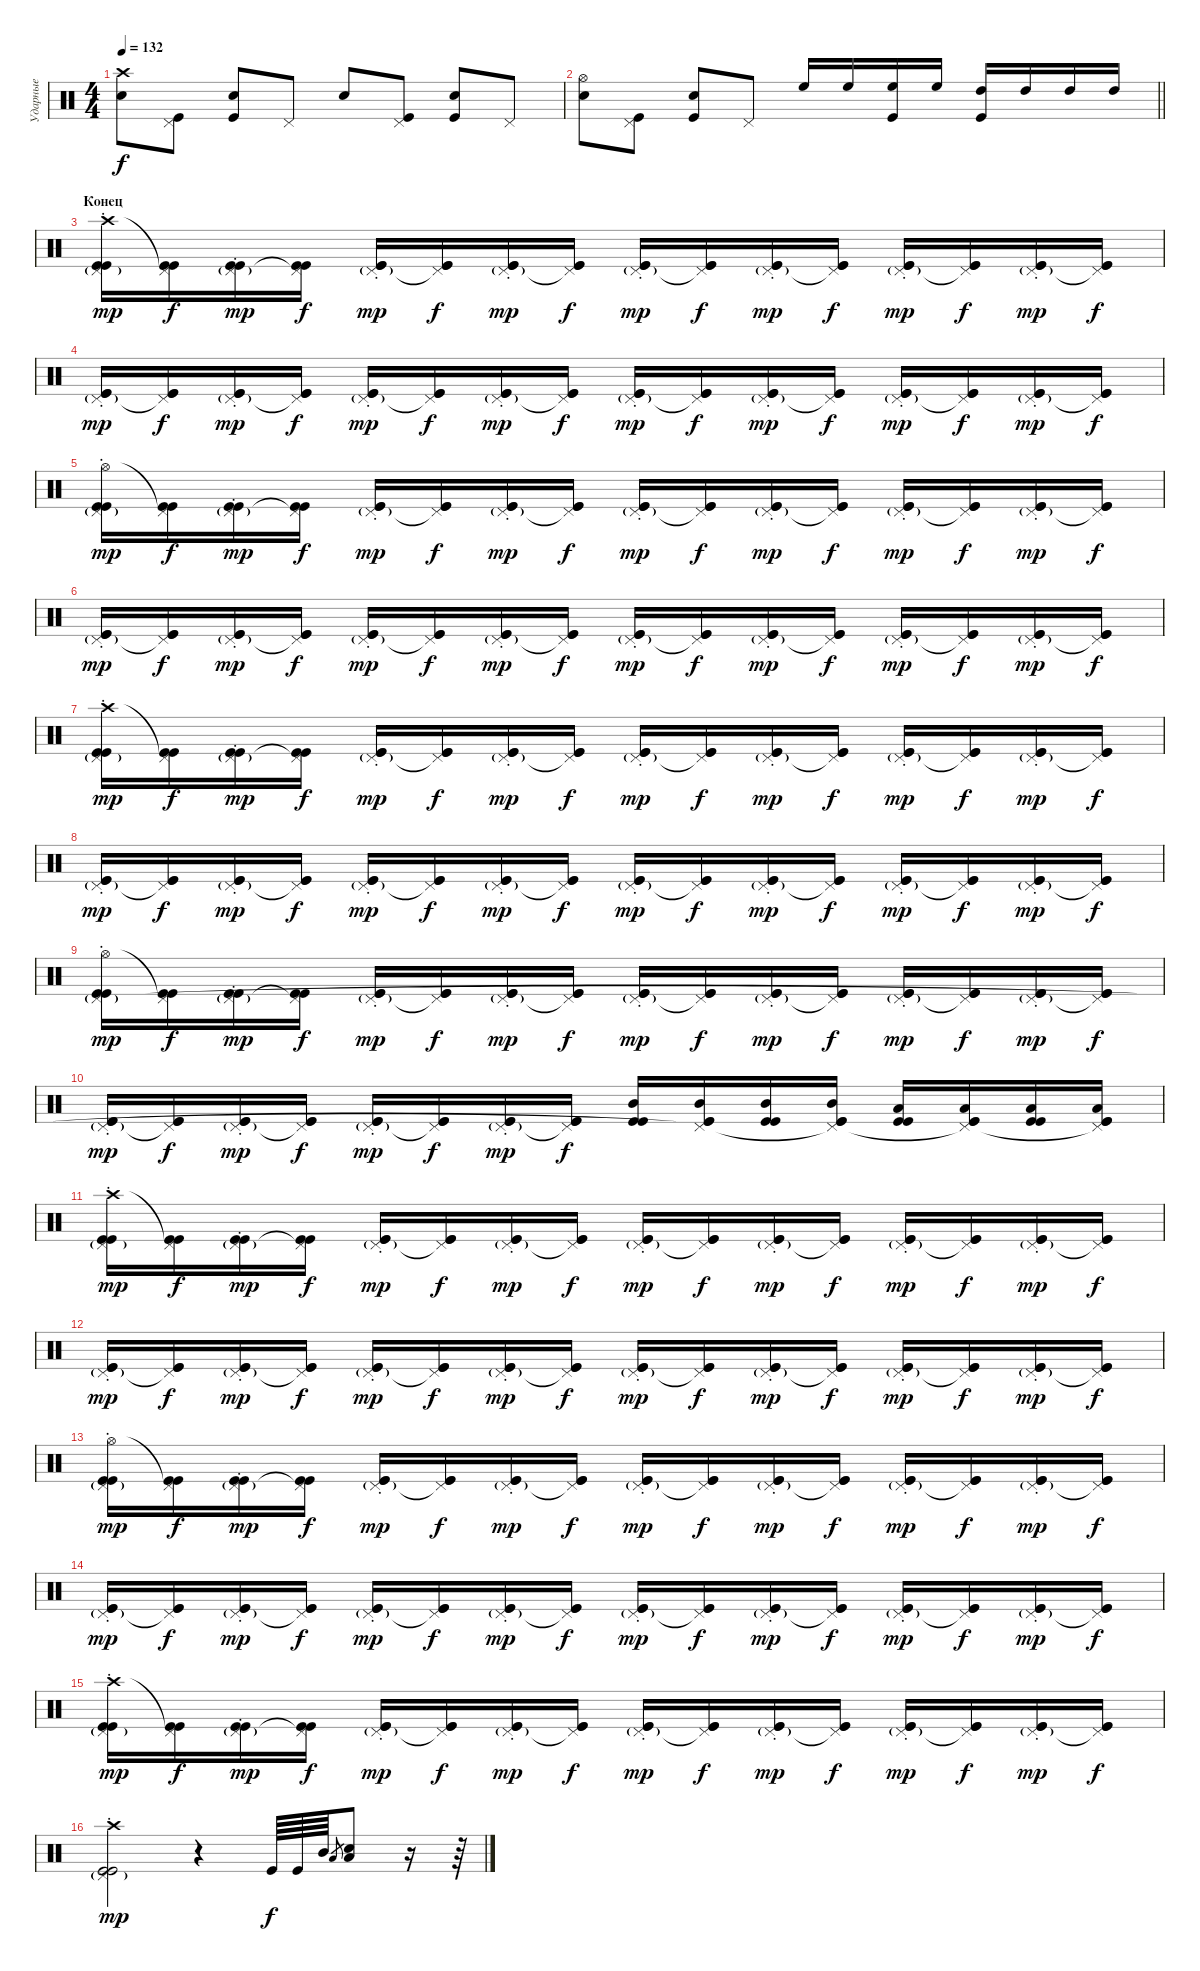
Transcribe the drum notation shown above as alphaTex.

\track ("Ударные" "Ударные") {instrument percussion}
\staff {score}
\articulation defaults
\ts (4 4)
\tempo 132
\clef neutral
\ks c
("Crash high (hit)" "Snare (hit) 2").8{dy f} ("Pedal Hi-Hat (hit)" "Kick (hit)").8 ("Snare (hit) 2" "Kick (hit)").8 "Pedal Hi-Hat (hit)".8 "Snare (hit) 2".8 ("Pedal Hi-Hat (hit)" "Kick (hit)").8 ("Snare (hit) 2" "Kick (hit)").8 "Pedal Hi-Hat (hit)".8 |
\barLineRight lightlight
("Hi-Hat (open)" "Snare (hit) 2").8 ("Pedal Hi-Hat (hit)" "Kick (hit)").8 ("Snare (hit) 2" "Kick (hit)").8 "Pedal Hi-Hat (hit)".8 "High Floor Tom (hit)".16 "High Floor Tom (hit)".16 ("High Floor Tom (hit)" "Kick (hit)").16 "High Floor Tom (hit)".16 ("High Tom (hit)" "Kick (hit)").16 "High Tom (hit)".16 "High Tom (hit)".16 "High Tom (hit)".16 |
\section ("" "Конец")
("Kick (hit)" "Kick (hit)" "Crash high (hit)" "Pedal Hi-Hat (hit)"{g st}).16{dy mp} ("Kick (hit)" "Kick (hit)" "Pedal Hi-Hat (hit)"{t}).16{dy f} ("Kick (hit)" "Kick (hit)" "Pedal Hi-Hat (hit)"{g st}).16{dy mp} ("Kick (hit)" "Kick (hit)" "Pedal Hi-Hat (hit)"{t}).16{dy f} ("Kick (hit)" "Kick (hit)" "Pedal Hi-Hat (hit)"{g st}).16{dy mp} ("Kick (hit)" "Kick (hit)" "Pedal Hi-Hat (hit)"{t}).16{dy f} ("Kick (hit)" "Kick (hit)" "Pedal Hi-Hat (hit)"{g st}).16{dy mp} ("Kick (hit)" "Kick (hit)" "Pedal Hi-Hat (hit)"{t}).16{dy f} ("Kick (hit)" "Kick (hit)" "Pedal Hi-Hat (hit)"{g st}).16{dy mp} ("Kick (hit)" "Kick (hit)" "Pedal Hi-Hat (hit)"{t}).16{dy f} ("Kick (hit)" "Kick (hit)" "Pedal Hi-Hat (hit)"{g st}).16{dy mp} ("Kick (hit)" "Kick (hit)" "Pedal Hi-Hat (hit)"{t}).16{dy f} ("Kick (hit)" "Kick (hit)" "Pedal Hi-Hat (hit)"{g st}).16{dy mp} ("Kick (hit)" "Kick (hit)" "Pedal Hi-Hat (hit)"{t}).16{dy f} ("Kick (hit)" "Kick (hit)" "Pedal Hi-Hat (hit)"{g st}).16{dy mp} ("Kick (hit)" "Kick (hit)" "Pedal Hi-Hat (hit)"{t}).16{dy f} |
("Kick (hit)" "Kick (hit)" "Pedal Hi-Hat (hit)"{g st}).16{dy mp} ("Kick (hit)" "Kick (hit)" "Pedal Hi-Hat (hit)"{t}).16{dy f} ("Kick (hit)" "Kick (hit)" "Pedal Hi-Hat (hit)"{g st}).16{dy mp} ("Kick (hit)" "Kick (hit)" "Pedal Hi-Hat (hit)"{t}).16{dy f} ("Kick (hit)" "Kick (hit)" "Pedal Hi-Hat (hit)"{g st}).16{dy mp} ("Kick (hit)" "Kick (hit)" "Pedal Hi-Hat (hit)"{t}).16{dy f} ("Kick (hit)" "Kick (hit)" "Pedal Hi-Hat (hit)"{g st}).16{dy mp} ("Kick (hit)" "Kick (hit)" "Pedal Hi-Hat (hit)"{t}).16{dy f} ("Kick (hit)" "Kick (hit)" "Pedal Hi-Hat (hit)"{g st}).16{dy mp} ("Kick (hit)" "Kick (hit)" "Pedal Hi-Hat (hit)"{t}).16{dy f} ("Kick (hit)" "Kick (hit)" "Pedal Hi-Hat (hit)"{g st}).16{dy mp} ("Kick (hit)" "Kick (hit)" "Pedal Hi-Hat (hit)"{t}).16{dy f} ("Kick (hit)" "Kick (hit)" "Pedal Hi-Hat (hit)"{g st}).16{dy mp} ("Kick (hit)" "Kick (hit)" "Pedal Hi-Hat (hit)"{t}).16{dy f} ("Kick (hit)" "Kick (hit)" "Pedal Hi-Hat (hit)"{g st}).16{dy mp} ("Kick (hit)" "Kick (hit)" "Pedal Hi-Hat (hit)"{t}).16{dy f} |
("Kick (hit)" "Kick (hit)" "Hi-Hat (open)" "Pedal Hi-Hat (hit)"{g st}).16{dy mp} ("Kick (hit)" "Kick (hit)" "Pedal Hi-Hat (hit)"{t}).16{dy f} ("Kick (hit)" "Kick (hit)" "Pedal Hi-Hat (hit)"{g st}).16{dy mp} ("Kick (hit)" "Kick (hit)" "Pedal Hi-Hat (hit)"{t}).16{dy f} ("Kick (hit)" "Kick (hit)" "Pedal Hi-Hat (hit)"{g st}).16{dy mp} ("Kick (hit)" "Kick (hit)" "Pedal Hi-Hat (hit)"{t}).16{dy f} ("Kick (hit)" "Kick (hit)" "Pedal Hi-Hat (hit)"{g st}).16{dy mp} ("Kick (hit)" "Kick (hit)" "Pedal Hi-Hat (hit)"{t}).16{dy f} ("Kick (hit)" "Kick (hit)" "Pedal Hi-Hat (hit)"{g st}).16{dy mp} ("Kick (hit)" "Kick (hit)" "Pedal Hi-Hat (hit)"{t}).16{dy f} ("Kick (hit)" "Kick (hit)" "Pedal Hi-Hat (hit)"{g st}).16{dy mp} ("Kick (hit)" "Kick (hit)" "Pedal Hi-Hat (hit)"{t}).16{dy f} ("Kick (hit)" "Kick (hit)" "Pedal Hi-Hat (hit)"{g st}).16{dy mp} ("Kick (hit)" "Kick (hit)" "Pedal Hi-Hat (hit)"{t}).16{dy f} ("Kick (hit)" "Kick (hit)" "Pedal Hi-Hat (hit)"{g st}).16{dy mp} ("Kick (hit)" "Kick (hit)" "Pedal Hi-Hat (hit)"{t}).16{dy f} |
("Kick (hit)" "Kick (hit)" "Pedal Hi-Hat (hit)"{g st}).16{dy mp} ("Kick (hit)" "Kick (hit)" "Pedal Hi-Hat (hit)"{t}).16{dy f} ("Kick (hit)" "Kick (hit)" "Pedal Hi-Hat (hit)"{g st}).16{dy mp} ("Kick (hit)" "Kick (hit)" "Pedal Hi-Hat (hit)"{t}).16{dy f} ("Kick (hit)" "Kick (hit)" "Pedal Hi-Hat (hit)"{g st}).16{dy mp} ("Kick (hit)" "Kick (hit)" "Pedal Hi-Hat (hit)"{t}).16{dy f} ("Kick (hit)" "Kick (hit)" "Pedal Hi-Hat (hit)"{g st}).16{dy mp} ("Kick (hit)" "Kick (hit)" "Pedal Hi-Hat (hit)"{t}).16{dy f} ("Kick (hit)" "Kick (hit)" "Pedal Hi-Hat (hit)"{g st}).16{dy mp} ("Kick (hit)" "Kick (hit)" "Pedal Hi-Hat (hit)"{t}).16{dy f} ("Kick (hit)" "Kick (hit)" "Pedal Hi-Hat (hit)"{g st}).16{dy mp} ("Kick (hit)" "Kick (hit)" "Pedal Hi-Hat (hit)"{t}).16{dy f} ("Kick (hit)" "Kick (hit)" "Pedal Hi-Hat (hit)"{g st}).16{dy mp} ("Kick (hit)" "Kick (hit)" "Pedal Hi-Hat (hit)"{t}).16{dy f} ("Kick (hit)" "Kick (hit)" "Pedal Hi-Hat (hit)"{g st}).16{dy mp} ("Kick (hit)" "Kick (hit)" "Pedal Hi-Hat (hit)"{t}).16{dy f} |
("Kick (hit)" "Kick (hit)" "Crash high (hit)" "Pedal Hi-Hat (hit)"{g st}).16{dy mp} ("Kick (hit)" "Kick (hit)" "Pedal Hi-Hat (hit)"{t}).16{dy f} ("Kick (hit)" "Kick (hit)" "Pedal Hi-Hat (hit)"{g st}).16{dy mp} ("Kick (hit)" "Kick (hit)" "Pedal Hi-Hat (hit)"{t}).16{dy f} ("Kick (hit)" "Kick (hit)" "Pedal Hi-Hat (hit)"{g st}).16{dy mp} ("Kick (hit)" "Kick (hit)" "Pedal Hi-Hat (hit)"{t}).16{dy f} ("Kick (hit)" "Kick (hit)" "Pedal Hi-Hat (hit)"{g st}).16{dy mp} ("Kick (hit)" "Kick (hit)" "Pedal Hi-Hat (hit)"{t}).16{dy f} ("Kick (hit)" "Kick (hit)" "Pedal Hi-Hat (hit)"{g st}).16{dy mp} ("Kick (hit)" "Kick (hit)" "Pedal Hi-Hat (hit)"{t}).16{dy f} ("Kick (hit)" "Kick (hit)" "Pedal Hi-Hat (hit)"{g st}).16{dy mp} ("Kick (hit)" "Kick (hit)" "Pedal Hi-Hat (hit)"{t}).16{dy f} ("Kick (hit)" "Kick (hit)" "Pedal Hi-Hat (hit)"{g st}).16{dy mp} ("Kick (hit)" "Kick (hit)" "Pedal Hi-Hat (hit)"{t}).16{dy f} ("Kick (hit)" "Kick (hit)" "Pedal Hi-Hat (hit)"{g st}).16{dy mp} ("Kick (hit)" "Kick (hit)" "Pedal Hi-Hat (hit)"{t}).16{dy f} |
("Kick (hit)" "Kick (hit)" "Pedal Hi-Hat (hit)"{g st}).16{dy mp} ("Kick (hit)" "Kick (hit)" "Pedal Hi-Hat (hit)"{t}).16{dy f} ("Kick (hit)" "Kick (hit)" "Pedal Hi-Hat (hit)"{g st}).16{dy mp} ("Kick (hit)" "Kick (hit)" "Pedal Hi-Hat (hit)"{t}).16{dy f} ("Kick (hit)" "Kick (hit)" "Pedal Hi-Hat (hit)"{g st}).16{dy mp} ("Kick (hit)" "Kick (hit)" "Pedal Hi-Hat (hit)"{t}).16{dy f} ("Kick (hit)" "Kick (hit)" "Pedal Hi-Hat (hit)"{g st}).16{dy mp} ("Kick (hit)" "Kick (hit)" "Pedal Hi-Hat (hit)"{t}).16{dy f} ("Kick (hit)" "Kick (hit)" "Pedal Hi-Hat (hit)"{g st}).16{dy mp} ("Kick (hit)" "Kick (hit)" "Pedal Hi-Hat (hit)"{t}).16{dy f} ("Kick (hit)" "Kick (hit)" "Pedal Hi-Hat (hit)"{g st}).16{dy mp} ("Kick (hit)" "Kick (hit)" "Pedal Hi-Hat (hit)"{t}).16{dy f} ("Kick (hit)" "Kick (hit)" "Pedal Hi-Hat (hit)"{g st}).16{dy mp} ("Kick (hit)" "Kick (hit)" "Pedal Hi-Hat (hit)"{t}).16{dy f} ("Kick (hit)" "Kick (hit)" "Pedal Hi-Hat (hit)"{g st}).16{dy mp} ("Kick (hit)" "Kick (hit)" "Pedal Hi-Hat (hit)"{t}).16{dy f} |
("Kick (hit)" "Kick (hit)" "Hi-Hat (open)" "Pedal Hi-Hat (hit)"{g st}).16{dy mp} ("Kick (hit)" "Kick (hit)" "Pedal Hi-Hat (hit)"{t}).16{dy f} ("Kick (hit)" "Kick (hit)" "Pedal Hi-Hat (hit)"{g st}).16{dy mp} ("Kick (hit)" "Kick (hit)" "Pedal Hi-Hat (hit)"{t}).16{dy f} ("Kick (hit)" "Kick (hit)" "Pedal Hi-Hat (hit)"{g st}).16{dy mp} ("Kick (hit)" "Kick (hit)" "Pedal Hi-Hat (hit)"{t}).16{dy f} ("Kick (hit)" "Kick (hit)" "Pedal Hi-Hat (hit)"{g st}).16{dy mp} ("Kick (hit)" "Kick (hit)" "Pedal Hi-Hat (hit)"{t}).16{dy f} ("Kick (hit)" "Kick (hit)" "Pedal Hi-Hat (hit)"{g st}).16{dy mp} ("Kick (hit)" "Kick (hit)" "Pedal Hi-Hat (hit)"{t}).16{dy f} ("Kick (hit)" "Kick (hit)" "Pedal Hi-Hat (hit)"{g st}).16{dy mp} ("Kick (hit)" "Kick (hit)" "Pedal Hi-Hat (hit)"{t}).16{dy f} ("Kick (hit)" "Kick (hit)" "Pedal Hi-Hat (hit)"{g st}).16{dy mp} ("Kick (hit)" "Kick (hit)" "Pedal Hi-Hat (hit)"{t}).16{dy f} ("Kick (hit)" "Kick (hit)" "Pedal Hi-Hat (hit)"{g st}).16{dy mp} ("Kick (hit)" "Kick (hit)" "Pedal Hi-Hat (hit)"{t}).16{dy f} |
("Kick (hit)" "Kick (hit)" "Pedal Hi-Hat (hit)"{g st}).16{dy mp} ("Kick (hit)" "Kick (hit)" "Pedal Hi-Hat (hit)"{t}).16{dy f} ("Kick (hit)" "Kick (hit)" "Pedal Hi-Hat (hit)"{g st}).16{dy mp} ("Kick (hit)" "Kick (hit)" "Pedal Hi-Hat (hit)"{t}).16{dy f} ("Kick (hit)" "Kick (hit)" "Pedal Hi-Hat (hit)"{g st}).16{dy mp} ("Kick (hit)" "Kick (hit)" "Pedal Hi-Hat (hit)"{t}).16{dy f} ("Kick (hit)" "Kick (hit)" "Pedal Hi-Hat (hit)"{g st}).16{dy mp} ("Kick (hit)" "Kick (hit)" "Pedal Hi-Hat (hit)"{t}).16{dy f} ("Kick (hit)" "Kick (hit)" "Mid Tom (hit)").16 ("Kick (hit)" "Kick (hit)" "Mid Tom (hit)" "Pedal Hi-Hat (hit)"{t}).16 ("Kick (hit)" "Kick (hit)" "Mid Tom (hit)").16 ("Kick (hit)" "Kick (hit)" "Mid Tom (hit)" "Pedal Hi-Hat (hit)"{t}).16 ("Kick (hit)" "Kick (hit)" "Low Tom (hit)").16 ("Kick (hit)" "Kick (hit)" "Low Tom (hit)" "Pedal Hi-Hat (hit)"{t}).16 ("Kick (hit)" "Kick (hit)" "Low Tom (hit)").16 ("Kick (hit)" "Kick (hit)" "Low Tom (hit)" "Pedal Hi-Hat (hit)"{t}).16 |
("Kick (hit)" "Kick (hit)" "Crash high (hit)" "Pedal Hi-Hat (hit)"{g st}).16{dy mp} ("Kick (hit)" "Kick (hit)" "Pedal Hi-Hat (hit)"{t}).16{dy f} ("Kick (hit)" "Kick (hit)" "Pedal Hi-Hat (hit)"{g st}).16{dy mp} ("Kick (hit)" "Kick (hit)" "Pedal Hi-Hat (hit)"{t}).16{dy f} ("Kick (hit)" "Kick (hit)" "Pedal Hi-Hat (hit)"{g st}).16{dy mp} ("Kick (hit)" "Kick (hit)" "Pedal Hi-Hat (hit)"{t}).16{dy f} ("Kick (hit)" "Kick (hit)" "Pedal Hi-Hat (hit)"{g st}).16{dy mp} ("Kick (hit)" "Kick (hit)" "Pedal Hi-Hat (hit)"{t}).16{dy f} ("Kick (hit)" "Kick (hit)" "Pedal Hi-Hat (hit)"{g st}).16{dy mp} ("Kick (hit)" "Kick (hit)" "Pedal Hi-Hat (hit)"{t}).16{dy f} ("Kick (hit)" "Kick (hit)" "Pedal Hi-Hat (hit)"{g st}).16{dy mp} ("Kick (hit)" "Kick (hit)" "Pedal Hi-Hat (hit)"{t}).16{dy f} ("Kick (hit)" "Kick (hit)" "Pedal Hi-Hat (hit)"{g st}).16{dy mp} ("Kick (hit)" "Kick (hit)" "Pedal Hi-Hat (hit)"{t}).16{dy f} ("Kick (hit)" "Kick (hit)" "Pedal Hi-Hat (hit)"{g st}).16{dy mp} ("Kick (hit)" "Kick (hit)" "Pedal Hi-Hat (hit)"{t}).16{dy f} |
("Kick (hit)" "Kick (hit)" "Pedal Hi-Hat (hit)"{g st}).16{dy mp} ("Kick (hit)" "Kick (hit)" "Pedal Hi-Hat (hit)"{t}).16{dy f} ("Kick (hit)" "Kick (hit)" "Pedal Hi-Hat (hit)"{g st}).16{dy mp} ("Kick (hit)" "Kick (hit)" "Pedal Hi-Hat (hit)"{t}).16{dy f} ("Kick (hit)" "Kick (hit)" "Pedal Hi-Hat (hit)"{g st}).16{dy mp} ("Kick (hit)" "Kick (hit)" "Pedal Hi-Hat (hit)"{t}).16{dy f} ("Kick (hit)" "Kick (hit)" "Pedal Hi-Hat (hit)"{g st}).16{dy mp} ("Kick (hit)" "Kick (hit)" "Pedal Hi-Hat (hit)"{t}).16{dy f} ("Kick (hit)" "Kick (hit)" "Pedal Hi-Hat (hit)"{g st}).16{dy mp} ("Kick (hit)" "Kick (hit)" "Pedal Hi-Hat (hit)"{t}).16{dy f} ("Kick (hit)" "Kick (hit)" "Pedal Hi-Hat (hit)"{g st}).16{dy mp} ("Kick (hit)" "Kick (hit)" "Pedal Hi-Hat (hit)"{t}).16{dy f} ("Kick (hit)" "Kick (hit)" "Pedal Hi-Hat (hit)"{g st}).16{dy mp} ("Kick (hit)" "Kick (hit)" "Pedal Hi-Hat (hit)"{t}).16{dy f} ("Kick (hit)" "Kick (hit)" "Pedal Hi-Hat (hit)"{g st}).16{dy mp} ("Kick (hit)" "Kick (hit)" "Pedal Hi-Hat (hit)"{t}).16{dy f} |
("Kick (hit)" "Kick (hit)" "Hi-Hat (open)" "Pedal Hi-Hat (hit)"{g st}).16{dy mp} ("Kick (hit)" "Kick (hit)" "Pedal Hi-Hat (hit)"{t}).16{dy f} ("Kick (hit)" "Kick (hit)" "Pedal Hi-Hat (hit)"{g st}).16{dy mp} ("Kick (hit)" "Kick (hit)" "Pedal Hi-Hat (hit)"{t}).16{dy f} ("Kick (hit)" "Kick (hit)" "Pedal Hi-Hat (hit)"{g st}).16{dy mp} ("Kick (hit)" "Kick (hit)" "Pedal Hi-Hat (hit)"{t}).16{dy f} ("Kick (hit)" "Kick (hit)" "Pedal Hi-Hat (hit)"{g st}).16{dy mp} ("Kick (hit)" "Kick (hit)" "Pedal Hi-Hat (hit)"{t}).16{dy f} ("Kick (hit)" "Kick (hit)" "Pedal Hi-Hat (hit)"{g st}).16{dy mp} ("Kick (hit)" "Kick (hit)" "Pedal Hi-Hat (hit)"{t}).16{dy f} ("Kick (hit)" "Kick (hit)" "Pedal Hi-Hat (hit)"{g st}).16{dy mp} ("Kick (hit)" "Kick (hit)" "Pedal Hi-Hat (hit)"{t}).16{dy f} ("Kick (hit)" "Kick (hit)" "Pedal Hi-Hat (hit)"{g st}).16{dy mp} ("Kick (hit)" "Kick (hit)" "Pedal Hi-Hat (hit)"{t}).16{dy f} ("Kick (hit)" "Kick (hit)" "Pedal Hi-Hat (hit)"{g st}).16{dy mp} ("Kick (hit)" "Kick (hit)" "Pedal Hi-Hat (hit)"{t}).16{dy f} |
("Kick (hit)" "Kick (hit)" "Pedal Hi-Hat (hit)"{g st}).16{dy mp} ("Kick (hit)" "Kick (hit)" "Pedal Hi-Hat (hit)"{t}).16{dy f} ("Kick (hit)" "Kick (hit)" "Pedal Hi-Hat (hit)"{g st}).16{dy mp} ("Kick (hit)" "Kick (hit)" "Pedal Hi-Hat (hit)"{t}).16{dy f} ("Kick (hit)" "Kick (hit)" "Pedal Hi-Hat (hit)"{g st}).16{dy mp} ("Kick (hit)" "Kick (hit)" "Pedal Hi-Hat (hit)"{t}).16{dy f} ("Kick (hit)" "Kick (hit)" "Pedal Hi-Hat (hit)"{g st}).16{dy mp} ("Kick (hit)" "Kick (hit)" "Pedal Hi-Hat (hit)"{t}).16{dy f} ("Kick (hit)" "Kick (hit)" "Pedal Hi-Hat (hit)"{g st}).16{dy mp} ("Kick (hit)" "Kick (hit)" "Pedal Hi-Hat (hit)"{t}).16{dy f} ("Kick (hit)" "Kick (hit)" "Pedal Hi-Hat (hit)"{g st}).16{dy mp} ("Kick (hit)" "Kick (hit)" "Pedal Hi-Hat (hit)"{t}).16{dy f} ("Kick (hit)" "Kick (hit)" "Pedal Hi-Hat (hit)"{g st}).16{dy mp} ("Kick (hit)" "Kick (hit)" "Pedal Hi-Hat (hit)"{t}).16{dy f} ("Kick (hit)" "Kick (hit)" "Pedal Hi-Hat (hit)"{g st}).16{dy mp} ("Kick (hit)" "Kick (hit)" "Pedal Hi-Hat (hit)"{t}).16{dy f} |
("Kick (hit)" "Kick (hit)" "Crash high (hit)" "Pedal Hi-Hat (hit)"{g st}).16{dy mp} ("Kick (hit)" "Kick (hit)" "Pedal Hi-Hat (hit)"{t}).16{dy f} ("Kick (hit)" "Kick (hit)" "Pedal Hi-Hat (hit)"{g st}).16{dy mp} ("Kick (hit)" "Kick (hit)" "Pedal Hi-Hat (hit)"{t}).16{dy f} ("Kick (hit)" "Kick (hit)" "Pedal Hi-Hat (hit)"{g st}).16{dy mp} ("Kick (hit)" "Kick (hit)" "Pedal Hi-Hat (hit)"{t}).16{dy f} ("Kick (hit)" "Kick (hit)" "Pedal Hi-Hat (hit)"{g st}).16{dy mp} ("Kick (hit)" "Kick (hit)" "Pedal Hi-Hat (hit)"{t}).16{dy f} ("Kick (hit)" "Kick (hit)" "Pedal Hi-Hat (hit)"{g st}).16{dy mp} ("Kick (hit)" "Kick (hit)" "Pedal Hi-Hat (hit)"{t}).16{dy f} ("Kick (hit)" "Kick (hit)" "Pedal Hi-Hat (hit)"{g st}).16{dy mp} ("Kick (hit)" "Kick (hit)" "Pedal Hi-Hat (hit)"{t}).16{dy f} ("Kick (hit)" "Kick (hit)" "Pedal Hi-Hat (hit)"{g st}).16{dy mp} ("Kick (hit)" "Kick (hit)" "Pedal Hi-Hat (hit)"{t}).16{dy f} ("Kick (hit)" "Kick (hit)" "Pedal Hi-Hat (hit)"{g st}).16{dy mp} ("Kick (hit)" "Kick (hit)" "Pedal Hi-Hat (hit)"{t}).16{dy f} |
("Kick (hit)" "Kick (hit)" "Crash high (hit)" "Pedal Hi-Hat (hit)"{g st}).2{dy mp} r.4 "Kick (hit)".64{dy f} "Kick (hit)".64 "Mid Tom (hit)".64 "Low Tom (hit)".8{gr} ("Low Tom (hit)" "Snare (hit) 2").8 r.16 r.64
